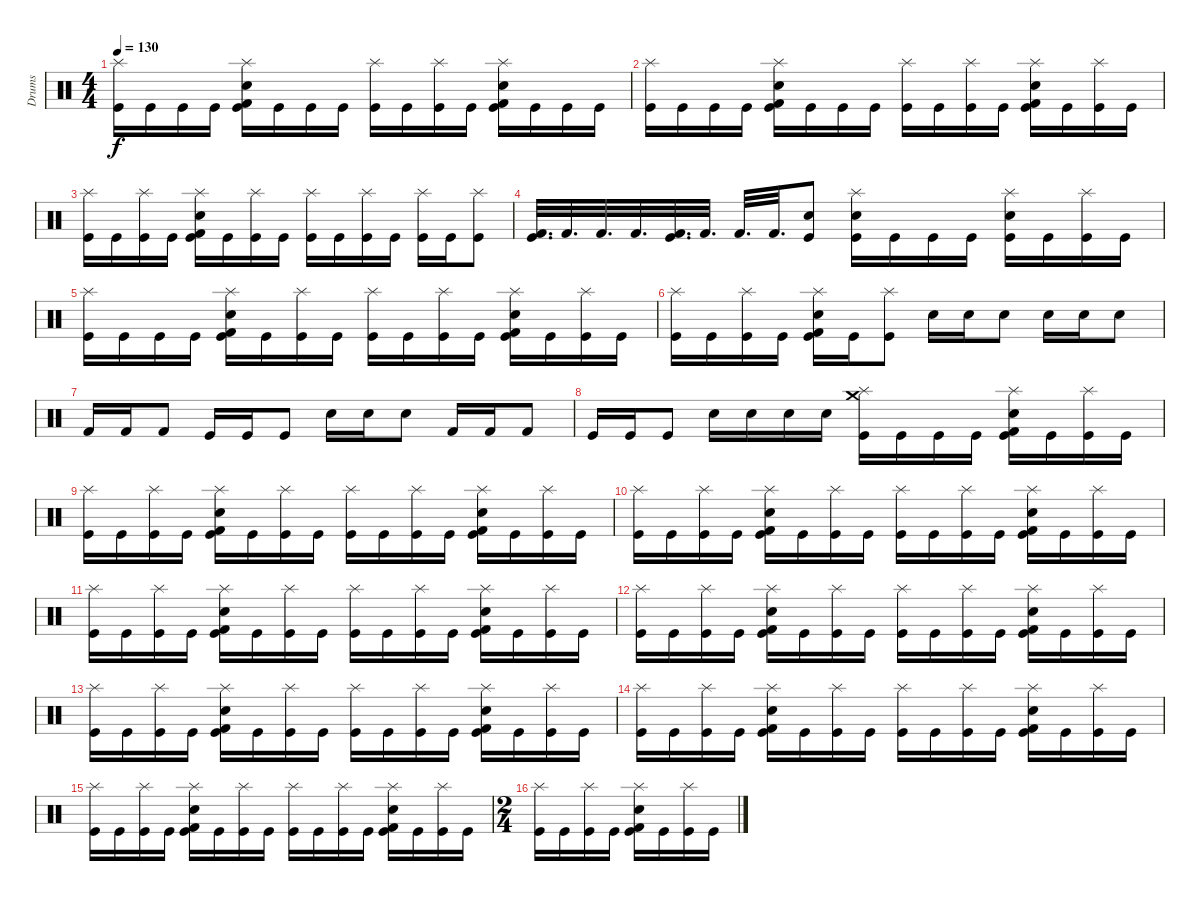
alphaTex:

\track ("Drums" "Drums") {instrument percussion}
\staff {score}
\articulation defaults
\ts (4 4)
\tempo 130
\clef neutral
\ks c
("Splash (hit)" "Kick (hit)").16{dy f} "Kick (hit)".16 "Kick (hit)".16 "Kick (hit)".16 ("Kick (hit) 2" "Electric Snare (hit)" "Splash (hit)" "Kick (hit)").16 "Kick (hit)".16 "Kick (hit)".16 "Kick (hit)".16 ("Splash (hit)" "Kick (hit)").16 "Kick (hit)".16 ("Splash (hit)" "Kick (hit)").16 "Kick (hit)".16 ("Kick (hit) 2" "Electric Snare (hit)" "Splash (hit)" "Kick (hit)").16 "Kick (hit)".16 "Kick (hit)".16 "Kick (hit)".16 |
("Splash (hit)" "Kick (hit)").16 "Kick (hit)".16 "Kick (hit)".16 "Kick (hit)".16 ("Kick (hit) 2" "Electric Snare (hit)" "Splash (hit)" "Kick (hit)").16 "Kick (hit)".16 "Kick (hit)".16 "Kick (hit)".16 ("Splash (hit)" "Kick (hit)").16 "Kick (hit)".16 ("Splash (hit)" "Kick (hit)").16 "Kick (hit)".16 ("Kick (hit) 2" "Electric Snare (hit)" "Splash (hit)" "Kick (hit)").16 "Kick (hit)".16 ("Splash (hit)" "Kick (hit)").16 "Kick (hit)".16 |
("Splash (hit)" "Kick (hit)").16 "Kick (hit)".16 ("Splash (hit)" "Kick (hit)").16 "Kick (hit)".16 ("Kick (hit) 2" "Electric Snare (hit)" "Splash (hit)" "Kick (hit)").16 "Kick (hit)".16 ("Splash (hit)" "Kick (hit)").16 "Kick (hit)".16 ("Splash (hit)" "Kick (hit)").16 "Kick (hit)".16 ("Splash (hit)" "Kick (hit)").16 "Kick (hit)".16 ("Splash (hit)" "Kick (hit)").16 "Kick (hit)".16 ("Splash (hit)" "Kick (hit)").8 |
("Kick (hit) 2" "Kick (hit)").32{d} "Kick (hit) 2".32{d} "Kick (hit) 2".32{d} "Kick (hit) 2".32{d} ("Kick (hit) 2" "Kick (hit)").32{d} "Kick (hit) 2".32{d} "Kick (hit) 2".32{d} "Kick (hit) 2".32{d} ("Electric Snare (hit)" "Kick (hit)").8 ("Electric Snare (hit)" "Splash (hit)" "Kick (hit)").16 "Kick (hit)".16 "Kick (hit)".16 "Kick (hit)".16 ("Electric Snare (hit)" "Splash (hit)" "Kick (hit)").16 "Kick (hit)".16 ("Splash (hit)" "Kick (hit)").16 "Kick (hit)".16 |
("Splash (hit)" "Kick (hit)").16 "Kick (hit)".16 "Kick (hit)".16 "Kick (hit)".16 ("Kick (hit) 2" "Electric Snare (hit)" "Splash (hit)" "Kick (hit)").16 "Kick (hit)".16 ("Splash (hit)" "Kick (hit)").16 "Kick (hit)".16 ("Splash (hit)" "Kick (hit)").16 "Kick (hit)".16 ("Splash (hit)" "Kick (hit)").16 "Kick (hit)".16 ("Kick (hit) 2" "Electric Snare (hit)" "Splash (hit)" "Kick (hit)").16 "Kick (hit)".16 ("Splash (hit)" "Kick (hit)").16 "Kick (hit)".16 |
("Splash (hit)" "Kick (hit)").16 "Kick (hit)".16 ("Splash (hit)" "Kick (hit)").16 "Kick (hit)".16 ("Kick (hit) 2" "Electric Snare (hit)" "Splash (hit)" "Kick (hit)").16 "Kick (hit)".16 ("Splash (hit)" "Kick (hit)").8 "Snare (hit) 2".16 "Snare (hit) 2".16 "Snare (hit) 2".8 "Electric Snare (hit)".16 "Electric Snare (hit)".16 "Electric Snare (hit)".8 |
"Kick (hit) 2".16 "Kick (hit) 2".16 "Kick (hit) 2".8 "Kick (hit)".16 "Kick (hit)".16 "Kick (hit)".8 "Snare (hit) 2".16 "Snare (hit) 2".16 "Snare (hit) 2".8 "Kick (hit) 2".16 "Kick (hit) 2".16 "Kick (hit) 2".8 |
"Kick (hit)".16 "Kick (hit)".16 "Kick (hit)".8 "Electric Snare (hit)".16 "Electric Snare (hit)".16 "Electric Snare (hit)".16 "Electric Snare (hit)".16 ("Crash medium (hit)" "Splash (hit)" "Kick (hit)").16 "Kick (hit)".16 "Kick (hit)".16 "Kick (hit)".16 ("Kick (hit) 2" "Electric Snare (hit)" "Splash (hit)" "Kick (hit)").16 "Kick (hit)".16 ("Splash (hit)" "Kick (hit)").16 "Kick (hit)".16 |
("Splash (hit)" "Kick (hit)").16 "Kick (hit)".16 ("Splash (hit)" "Kick (hit)").16 "Kick (hit)".16 ("Kick (hit) 2" "Electric Snare (hit)" "Splash (hit)" "Kick (hit)").16 "Kick (hit)".16 ("Splash (hit)" "Kick (hit)").16 "Kick (hit)".16 ("Splash (hit)" "Kick (hit)").16 "Kick (hit)".16 ("Splash (hit)" "Kick (hit)").16 "Kick (hit)".16 ("Kick (hit) 2" "Electric Snare (hit)" "Splash (hit)" "Kick (hit)").16 "Kick (hit)".16 ("Splash (hit)" "Kick (hit)").16 "Kick (hit)".16 |
("Splash (hit)" "Kick (hit)").16 "Kick (hit)".16 ("Splash (hit)" "Kick (hit)").16 "Kick (hit)".16 ("Kick (hit) 2" "Electric Snare (hit)" "Splash (hit)" "Kick (hit)").16 "Kick (hit)".16 ("Splash (hit)" "Kick (hit)").16 "Kick (hit)".16 ("Splash (hit)" "Kick (hit)").16 "Kick (hit)".16 ("Splash (hit)" "Kick (hit)").16 "Kick (hit)".16 ("Kick (hit) 2" "Electric Snare (hit)" "Splash (hit)" "Kick (hit)").16 "Kick (hit)".16 ("Splash (hit)" "Kick (hit)").16 "Kick (hit)".16 |
("Splash (hit)" "Kick (hit)").16 "Kick (hit)".16 ("Splash (hit)" "Kick (hit)").16 "Kick (hit)".16 ("Kick (hit) 2" "Electric Snare (hit)" "Splash (hit)" "Kick (hit)").16 "Kick (hit)".16 ("Splash (hit)" "Kick (hit)").16 "Kick (hit)".16 ("Splash (hit)" "Kick (hit)").16 "Kick (hit)".16 ("Splash (hit)" "Kick (hit)").16 "Kick (hit)".16 ("Kick (hit) 2" "Electric Snare (hit)" "Splash (hit)" "Kick (hit)").16 "Kick (hit)".16 ("Splash (hit)" "Kick (hit)").16 "Kick (hit)".16 |
("Splash (hit)" "Kick (hit)").16 "Kick (hit)".16 ("Splash (hit)" "Kick (hit)").16 "Kick (hit)".16 ("Kick (hit) 2" "Electric Snare (hit)" "Splash (hit)" "Kick (hit)").16 "Kick (hit)".16 ("Splash (hit)" "Kick (hit)").16 "Kick (hit)".16 ("Splash (hit)" "Kick (hit)").16 "Kick (hit)".16 ("Splash (hit)" "Kick (hit)").16 "Kick (hit)".16 ("Kick (hit) 2" "Electric Snare (hit)" "Splash (hit)" "Kick (hit)").16 "Kick (hit)".16 ("Splash (hit)" "Kick (hit)").16 "Kick (hit)".16 |
("Splash (hit)" "Kick (hit)").16 "Kick (hit)".16 ("Splash (hit)" "Kick (hit)").16 "Kick (hit)".16 ("Kick (hit) 2" "Electric Snare (hit)" "Splash (hit)" "Kick (hit)").16 "Kick (hit)".16 ("Splash (hit)" "Kick (hit)").16 "Kick (hit)".16 ("Splash (hit)" "Kick (hit)").16 "Kick (hit)".16 ("Splash (hit)" "Kick (hit)").16 "Kick (hit)".16 ("Kick (hit) 2" "Electric Snare (hit)" "Splash (hit)" "Kick (hit)").16 "Kick (hit)".16 ("Splash (hit)" "Kick (hit)").16 "Kick (hit)".16 |
("Splash (hit)" "Kick (hit)").16 "Kick (hit)".16 ("Splash (hit)" "Kick (hit)").16 "Kick (hit)".16 ("Kick (hit) 2" "Electric Snare (hit)" "Splash (hit)" "Kick (hit)").16 "Kick (hit)".16 ("Splash (hit)" "Kick (hit)").16 "Kick (hit)".16 ("Splash (hit)" "Kick (hit)").16 "Kick (hit)".16 ("Splash (hit)" "Kick (hit)").16 "Kick (hit)".16 ("Kick (hit) 2" "Electric Snare (hit)" "Splash (hit)" "Kick (hit)").16 "Kick (hit)".16 ("Splash (hit)" "Kick (hit)").16 "Kick (hit)".16 |
("Splash (hit)" "Kick (hit)").16 "Kick (hit)".16 ("Splash (hit)" "Kick (hit)").16 "Kick (hit)".16 ("Kick (hit) 2" "Electric Snare (hit)" "Splash (hit)" "Kick (hit)").16 "Kick (hit)".16 ("Splash (hit)" "Kick (hit)").16 "Kick (hit)".16 ("Splash (hit)" "Kick (hit)").16 "Kick (hit)".16 ("Splash (hit)" "Kick (hit)").16 "Kick (hit)".16 ("Kick (hit) 2" "Electric Snare (hit)" "Splash (hit)" "Kick (hit)").16 "Kick (hit)".16 ("Splash (hit)" "Kick (hit)").16 "Kick (hit)".16 |
\ts (2 4)
("Splash (hit)" "Kick (hit)").16 "Kick (hit)".16 ("Splash (hit)" "Kick (hit)").16 "Kick (hit)".16 ("Kick (hit) 2" "Electric Snare (hit)" "Splash (hit)" "Kick (hit)").16 "Kick (hit)".16 ("Splash (hit)" "Kick (hit)").16 "Kick (hit)".16
